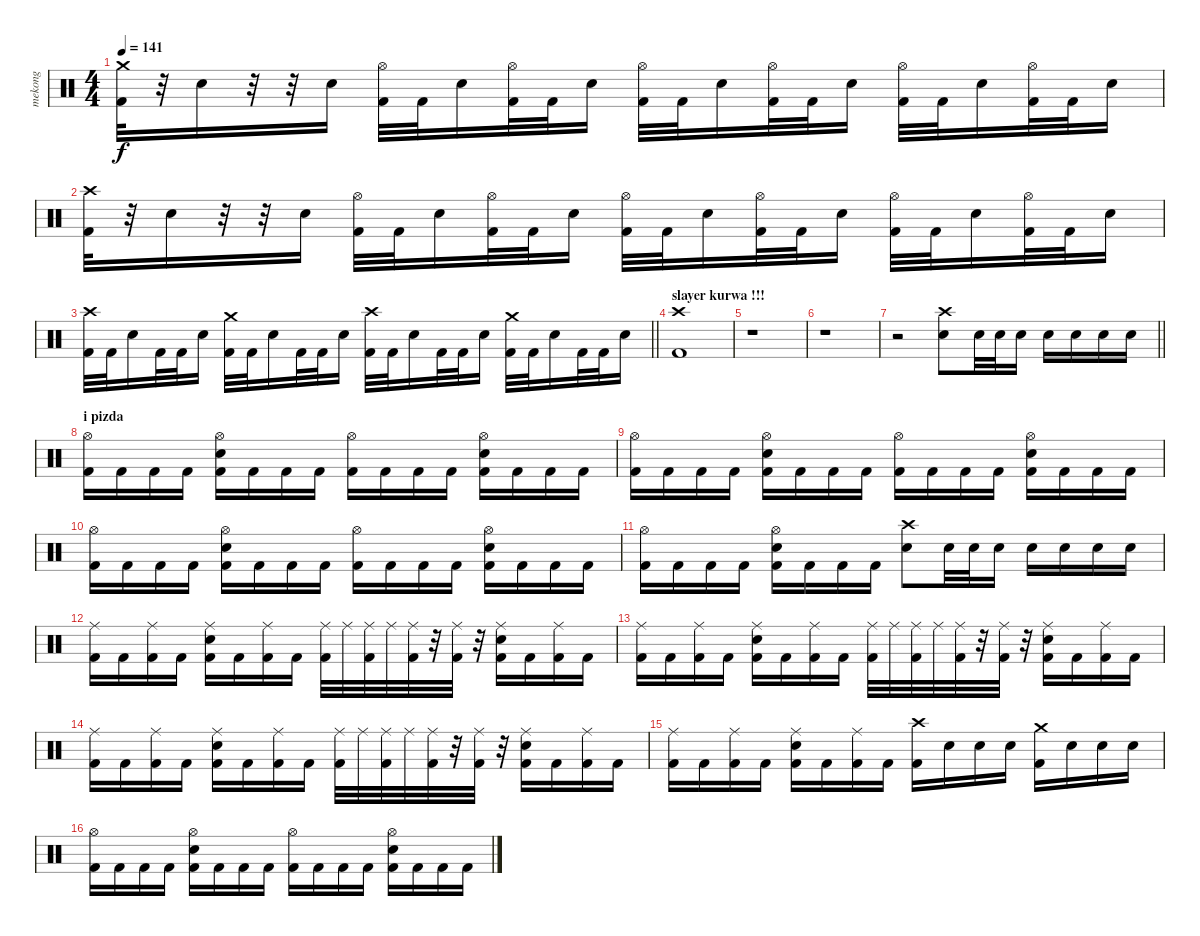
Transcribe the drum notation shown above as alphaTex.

\track ("mekong" "mekong") {instrument percussion}
\staff {score}
\articulation defaults
\ts (4 4)
\tempo 141
\clef neutral
\ks c
("Crash medium (hit)" "Kick (hit) 2").32{dy f} r.32 "Electric Snare (hit)".16 r.32 r.32 "Electric Snare (hit)".16 ("Hi-Hat (open)" "Kick (hit) 2").32 "Kick (hit) 2".32 "Electric Snare (hit)".16 ("Hi-Hat (open)" "Kick (hit) 2").32 "Kick (hit) 2".32 "Electric Snare (hit)".16 ("Hi-Hat (open)" "Kick (hit) 2").32 "Kick (hit) 2".32 "Electric Snare (hit)".16 ("Hi-Hat (open)" "Kick (hit) 2").32 "Kick (hit) 2".32 "Electric Snare (hit)".16 ("Hi-Hat (open)" "Kick (hit) 2").32 "Kick (hit) 2".32 "Electric Snare (hit)".16 ("Hi-Hat (open)" "Kick (hit) 2").32 "Kick (hit) 2".32 "Electric Snare (hit)".16 |
("Crash high (hit)" "Kick (hit) 2").32 r.32 "Electric Snare (hit)".16 r.32 r.32 "Electric Snare (hit)".16 ("Hi-Hat (open)" "Kick (hit) 2").32 "Kick (hit) 2".32 "Electric Snare (hit)".16 ("Hi-Hat (open)" "Kick (hit) 2").32 "Kick (hit) 2".32 "Electric Snare (hit)".16 ("Hi-Hat (open)" "Kick (hit) 2").32 "Kick (hit) 2".32 "Electric Snare (hit)".16 ("Hi-Hat (open)" "Kick (hit) 2").32 "Kick (hit) 2".32 "Electric Snare (hit)".16 ("Hi-Hat (open)" "Kick (hit) 2").32 "Kick (hit) 2".32 "Electric Snare (hit)".16 ("Hi-Hat (open)" "Kick (hit) 2").32 "Kick (hit) 2".32 "Electric Snare (hit)".16 |
\barLineRight lightlight
("Crash high (hit)" "Kick (hit) 2").32 "Kick (hit) 2".32 "Electric Snare (hit)".16 "Kick (hit) 2".32 "Kick (hit) 2".32 "Electric Snare (hit)".16 ("Crash medium (hit)" "Kick (hit) 2").32 "Kick (hit) 2".32 "Electric Snare (hit)".16 "Kick (hit) 2".32 "Kick (hit) 2".32 "Electric Snare (hit)".16 ("Crash high (hit)" "Kick (hit) 2").32 "Kick (hit) 2".32 "Electric Snare (hit)".16 "Kick (hit) 2".32 "Kick (hit) 2".32 "Electric Snare (hit)".16 ("Crash medium (hit)" "Kick (hit) 2").32 "Kick (hit) 2".32 "Electric Snare (hit)".16 "Kick (hit) 2".32 "Kick (hit) 2".32 "Electric Snare (hit)".16 |
\section ("" "slayer kurwa !!!")
("Crash high (hit)" "Kick (hit) 2").1 |
r.1 |
r.1 |
\barLineRight lightlight
r.2 ("Crash high (hit)" "Electric Snare (hit)").8 "Electric Snare (hit)".32 "Electric Snare (hit)".32 "Electric Snare (hit)".16 "Electric Snare (hit)".16 "Electric Snare (hit)".16 "Electric Snare (hit)".16 "Electric Snare (hit)".16 |
\section ("" "i pizda")
("Hi-Hat (open)" "Kick (hit) 2").16 "Kick (hit) 2".16 "Kick (hit) 2".16 "Kick (hit) 2".16 ("Electric Snare (hit)" "Hi-Hat (open)" "Kick (hit) 2").16 "Kick (hit) 2".16 "Kick (hit) 2".16 "Kick (hit) 2".16 ("Hi-Hat (open)" "Kick (hit) 2").16 "Kick (hit) 2".16 "Kick (hit) 2".16 "Kick (hit) 2".16 ("Electric Snare (hit)" "Hi-Hat (open)" "Kick (hit) 2").16 "Kick (hit) 2".16 "Kick (hit) 2".16 "Kick (hit) 2".16 |
("Hi-Hat (open)" "Kick (hit) 2").16 "Kick (hit) 2".16 "Kick (hit) 2".16 "Kick (hit) 2".16 ("Electric Snare (hit)" "Hi-Hat (open)" "Kick (hit) 2").16 "Kick (hit) 2".16 "Kick (hit) 2".16 "Kick (hit) 2".16 ("Hi-Hat (open)" "Kick (hit) 2").16 "Kick (hit) 2".16 "Kick (hit) 2".16 "Kick (hit) 2".16 ("Electric Snare (hit)" "Hi-Hat (open)" "Kick (hit) 2").16 "Kick (hit) 2".16 "Kick (hit) 2".16 "Kick (hit) 2".16 |
("Hi-Hat (open)" "Kick (hit) 2").16 "Kick (hit) 2".16 "Kick (hit) 2".16 "Kick (hit) 2".16 ("Electric Snare (hit)" "Hi-Hat (open)" "Kick (hit) 2").16 "Kick (hit) 2".16 "Kick (hit) 2".16 "Kick (hit) 2".16 ("Hi-Hat (open)" "Kick (hit) 2").16 "Kick (hit) 2".16 "Kick (hit) 2".16 "Kick (hit) 2".16 ("Electric Snare (hit)" "Hi-Hat (open)" "Kick (hit) 2").16 "Kick (hit) 2".16 "Kick (hit) 2".16 "Kick (hit) 2".16 |
("Hi-Hat (open)" "Kick (hit) 2").16 "Kick (hit) 2".16 "Kick (hit) 2".16 "Kick (hit) 2".16 ("Electric Snare (hit)" "Hi-Hat (open)" "Kick (hit) 2").16 "Kick (hit) 2".16 "Kick (hit) 2".16 "Kick (hit) 2".16 ("Crash high (hit)" "Electric Snare (hit)").8 "Electric Snare (hit)".32 "Electric Snare (hit)".32 "Electric Snare (hit)".16 "Electric Snare (hit)".16 "Electric Snare (hit)".16 "Electric Snare (hit)".16 "Electric Snare (hit)".16 |
("Ride (middle)" "Kick (hit) 2").16 "Kick (hit) 2".16 ("Ride (middle)" "Kick (hit) 2").16 "Kick (hit) 2".16 ("Ride (middle)" "Electric Snare (hit)" "Kick (hit) 2").16 "Kick (hit) 2".16 ("Ride (middle)" "Kick (hit) 2").16 "Kick (hit) 2".16 ("Ride (middle)" "Kick (hit) 2").32 "Ride (middle)".32 ("Ride (middle)" "Kick (hit) 2").32 "Ride (middle)".32 ("Ride (middle)" "Kick (hit) 2").32 r.32 ("Ride (middle)" "Kick (hit) 2").32 r.32 ("Ride (middle)" "Electric Snare (hit)" "Kick (hit) 2").16 "Kick (hit) 2".16 ("Ride (middle)" "Kick (hit) 2").16 "Kick (hit) 2".16 |
("Ride (middle)" "Kick (hit) 2").16 "Kick (hit) 2".16 ("Ride (middle)" "Kick (hit) 2").16 "Kick (hit) 2".16 ("Ride (middle)" "Electric Snare (hit)" "Kick (hit) 2").16 "Kick (hit) 2".16 ("Ride (middle)" "Kick (hit) 2").16 "Kick (hit) 2".16 ("Ride (middle)" "Kick (hit) 2").32 "Ride (middle)".32 ("Ride (middle)" "Kick (hit) 2").32 "Ride (middle)".32 ("Ride (middle)" "Kick (hit) 2").32 r.32 ("Ride (middle)" "Kick (hit) 2").32 r.32 ("Ride (middle)" "Electric Snare (hit)" "Kick (hit) 2").16 "Kick (hit) 2".16 ("Ride (middle)" "Kick (hit) 2").16 "Kick (hit) 2".16 |
("Ride (middle)" "Kick (hit) 2").16 "Kick (hit) 2".16 ("Ride (middle)" "Kick (hit) 2").16 "Kick (hit) 2".16 ("Ride (middle)" "Electric Snare (hit)" "Kick (hit) 2").16 "Kick (hit) 2".16 ("Ride (middle)" "Kick (hit) 2").16 "Kick (hit) 2".16 ("Ride (middle)" "Kick (hit) 2").32 "Ride (middle)".32 ("Ride (middle)" "Kick (hit) 2").32 "Ride (middle)".32 ("Ride (middle)" "Kick (hit) 2").32 r.32 ("Ride (middle)" "Kick (hit) 2").32 r.32 ("Ride (middle)" "Electric Snare (hit)" "Kick (hit) 2").16 "Kick (hit) 2".16 ("Ride (middle)" "Kick (hit) 2").16 "Kick (hit) 2".16 |
("Ride (middle)" "Kick (hit) 2").16 "Kick (hit) 2".16 ("Ride (middle)" "Kick (hit) 2").16 "Kick (hit) 2".16 ("Ride (middle)" "Electric Snare (hit)" "Kick (hit) 2").16 "Kick (hit) 2".16 ("Ride (middle)" "Kick (hit) 2").16 "Kick (hit) 2".16 ("Crash high (hit)" "Kick (hit) 2").16 "Electric Snare (hit)".16 "Electric Snare (hit)".16 "Electric Snare (hit)".16 ("Crash medium (hit)" "Kick (hit) 2").16 "Electric Snare (hit)".16 "Electric Snare (hit)".16 "Electric Snare (hit)".16 |
("Hi-Hat (open)" "Kick (hit) 2").16 "Kick (hit) 2".16 "Kick (hit) 2".16 "Kick (hit) 2".16 ("Electric Snare (hit)" "Hi-Hat (open)" "Kick (hit) 2").16 "Kick (hit) 2".16 "Kick (hit) 2".16 "Kick (hit) 2".16 ("Hi-Hat (open)" "Kick (hit) 2").16 "Kick (hit) 2".16 "Kick (hit) 2".16 "Kick (hit) 2".16 ("Electric Snare (hit)" "Hi-Hat (open)" "Kick (hit) 2").16 "Kick (hit) 2".16 "Kick (hit) 2".16 "Kick (hit) 2".16
